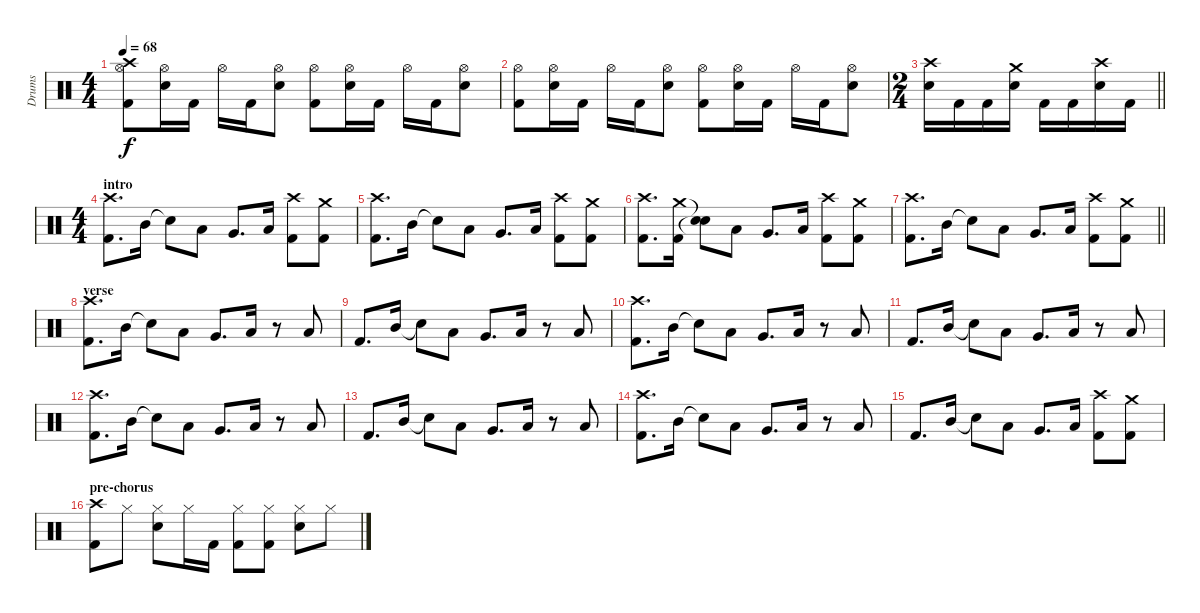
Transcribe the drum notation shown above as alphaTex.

\track ("Drums" "Drums") {instrument percussion}
\staff {score}
\articulation defaults
\ts (4 4)
\tempo 68
\clef neutral
\ks c
("Crash high (hit)" "Hi-Hat (open)" "Kick (hit) 2").8{dy f} ("Hi-Hat (open)" "Snare (hit) 2").16 "Kick (hit) 2".16 "Hi-Hat (open)".16 "Kick (hit) 2".16 ("Hi-Hat (open)" "Snare (hit) 2").8 ("Hi-Hat (open)" "Kick (hit) 2").8 ("Hi-Hat (open)" "Snare (hit) 2").16 "Kick (hit) 2".16 "Hi-Hat (open)".16 "Kick (hit) 2".16 ("Hi-Hat (open)" "Snare (hit) 2").8 |
("Hi-Hat (open)" "Kick (hit) 2").8 ("Hi-Hat (open)" "Snare (hit) 2").16 "Kick (hit) 2".16 "Hi-Hat (open)".16 "Kick (hit) 2".16 ("Hi-Hat (open)" "Snare (hit) 2").8 ("Hi-Hat (open)" "Kick (hit) 2").8 ("Hi-Hat (open)" "Snare (hit) 2").16 "Kick (hit) 2".16 "Hi-Hat (open)".16 "Kick (hit) 2".16 ("Hi-Hat (open)" "Snare (hit) 2").8 |
\ts (2 4)
\barLineRight lightlight
("Crash high (hit)" "Snare (hit) 2").16 "Kick (hit) 2".16 "Kick (hit) 2".16 ("Crash medium (hit)" "Snare (hit) 2").16 "Kick (hit) 2".16 "Kick (hit) 2".16 ("Crash high (hit)" "Snare (hit) 2").16 "Kick (hit) 2".16 |
\ts (4 4)
\section ("" "intro")
("Crash high (hit)" "Kick (hit) 2").8{d} "Mid Tom (hit)".16 "Snare (hit)"{t}.8 "Low Tom (hit)".8 "Very Low Tom (hit)".8{d} "Low Floor Tom (hit)".16 ("Crash high (hit)" "Kick (hit) 2").8 ("Crash medium (hit)" "Kick (hit) 2").8 |
("Crash high (hit)" "Kick (hit) 2").8{d} "Mid Tom (hit)".16 "Snare (hit)"{t}.8 "Low Tom (hit)".8 "Very Low Tom (hit)".8{d} "Low Floor Tom (hit)".16 ("Crash high (hit)" "Kick (hit) 2").8 ("Crash medium (hit)" "Kick (hit) 2").8 |
("Crash high (hit)" "Kick (hit) 2").8{d} ("Crash medium (hit)" "Kick (hit) 2").16 ("Snare (hit)"{t} "Snare (hit)"{t}).8 "Low Tom (hit)".8 "Very Low Tom (hit)".8{d} "Low Floor Tom (hit)".16 ("Crash high (hit)" "Kick (hit) 2").8 ("Crash medium (hit)" "Kick (hit) 2").8 |
\barLineRight lightlight
("Crash high (hit)" "Kick (hit) 2").8{d} "Mid Tom (hit)".16 "Snare (hit)"{t}.8 "Low Tom (hit)".8 "Very Low Tom (hit)".8{d} "Low Floor Tom (hit)".16 ("Crash high (hit)" "Kick (hit) 2").8 ("Crash medium (hit)" "Kick (hit) 2").8 |
\section ("" "verse")
("Crash high (hit)" "Kick (hit) 2").8{d} "Mid Tom (hit)".16 "Snare (hit)"{t}.8 "Low Tom (hit)".8 "Very Low Tom (hit)".8{d} "Low Floor Tom (hit)".16 r.8 "Low Floor Tom (hit)".8 |
"Kick (hit) 2".8{d} "Mid Tom (hit)".16 "Snare (hit)"{t}.8 "Low Tom (hit)".8 "Very Low Tom (hit)".8{d} "Low Floor Tom (hit)".16 r.8 "Low Floor Tom (hit)".8 |
("Crash high (hit)" "Kick (hit) 2").8{d} "Mid Tom (hit)".16 "Snare (hit)"{t}.8 "Low Tom (hit)".8 "Very Low Tom (hit)".8{d} "Low Floor Tom (hit)".16 r.8 "Low Floor Tom (hit)".8 |
"Kick (hit) 2".8{d} "Mid Tom (hit)".16 "Snare (hit)"{t}.8 "Low Tom (hit)".8 "Very Low Tom (hit)".8{d} "Low Floor Tom (hit)".16 r.8 "Low Floor Tom (hit)".8 |
("Crash high (hit)" "Kick (hit) 2").8{d} "Mid Tom (hit)".16 "Snare (hit)"{t}.8 "Low Tom (hit)".8 "Very Low Tom (hit)".8{d} "Low Floor Tom (hit)".16 r.8 "Low Floor Tom (hit)".8 |
"Kick (hit) 2".8{d} "Mid Tom (hit)".16 "Snare (hit)"{t}.8 "Low Tom (hit)".8 "Very Low Tom (hit)".8{d} "Low Floor Tom (hit)".16 r.8 "Low Floor Tom (hit)".8 |
("Crash high (hit)" "Kick (hit) 2").8{d} "Mid Tom (hit)".16 "Snare (hit)"{t}.8 "Low Tom (hit)".8 "Very Low Tom (hit)".8{d} "Low Floor Tom (hit)".16 r.8 "Low Floor Tom (hit)".8 |
"Kick (hit) 2".8{d} "Mid Tom (hit)".16 "Snare (hit)"{t}.8 "Low Tom (hit)".8 "Very Low Tom (hit)".8{d} "Low Floor Tom (hit)".16 ("Crash high (hit)" "Kick (hit) 2").8 ("Crash medium (hit)" "Kick (hit) 2").8 |
\section ("" "pre-chorus")
("Crash high (hit)" "Kick (hit) 2").8 "Hi-Hat (closed)".8 ("Hi-Hat (closed)" "Snare (hit) 2").8 "Hi-Hat (closed)".16 "Kick (hit) 2".16 ("Hi-Hat (closed)" "Kick (hit) 2").8 ("Hi-Hat (closed)" "Kick (hit) 2").8 ("Hi-Hat (closed)" "Snare (hit) 2").8 "Hi-Hat (closed)".8
